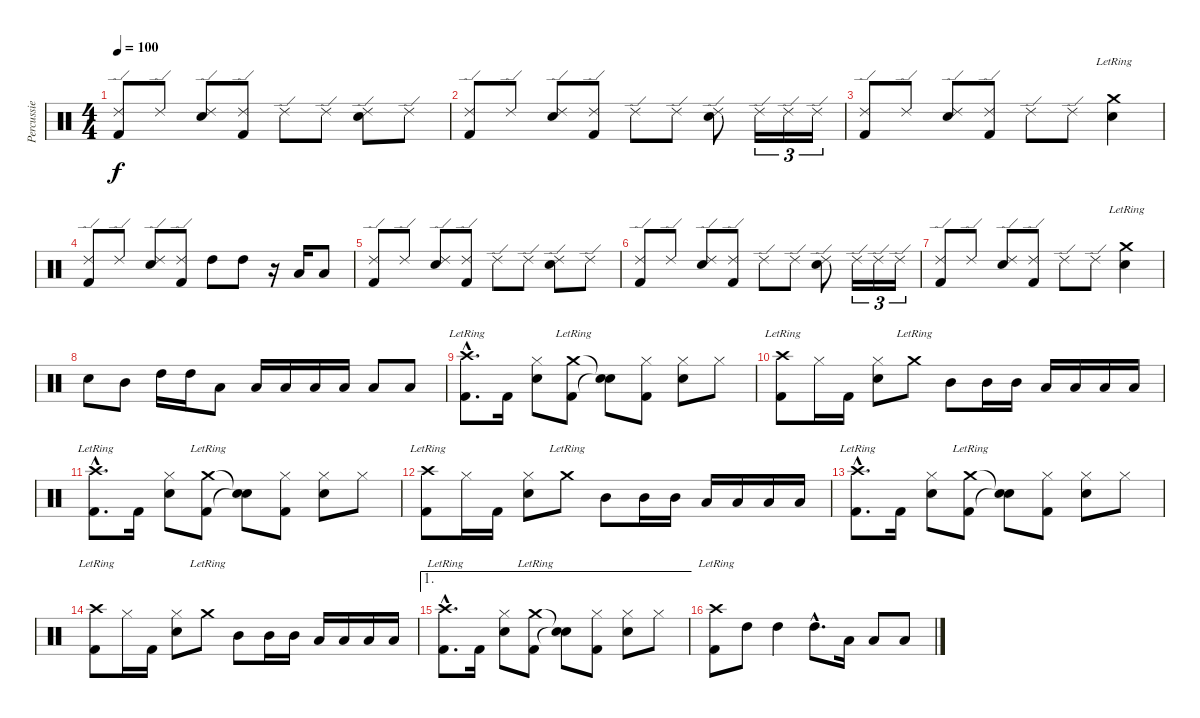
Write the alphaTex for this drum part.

\track ("Percussie" "Percussie") {instrument percussion}
\staff {score}
\articulation defaults
\ts (4 4)
\tempo 100
\clef neutral
\ks c
("Ride (edge) 2" "Kick (hit) 2").8{dy f} "Ride (edge) 2".8 ("Ride (edge) 2" "Snare (hit) 2").8 ("Ride (edge) 2" "Kick (hit) 2").8 "Ride (edge) 2".8 "Ride (edge) 2".8 ("Ride (edge) 2" "Snare (hit) 2").8 "Ride (edge) 2".8 |
("Ride (edge) 2" "Kick (hit) 2").8 "Ride (edge) 2".8 ("Ride (edge) 2" "Snare (hit) 2").8 ("Ride (edge) 2" "Kick (hit) 2").8 "Ride (edge) 2".8 "Ride (edge) 2".8 ("Ride (edge) 2" "Snare (hit) 2").8 "Ride (edge) 2".16{tu (3 2)} "Ride (edge) 2".16{tu (3 2)} "Ride (edge) 2".16{tu (3 2)} |
("Ride (edge) 2" "Kick (hit) 2").8 "Ride (edge) 2".8 ("Ride (edge) 2" "Snare (hit) 2").8 ("Ride (edge) 2" "Kick (hit) 2").8 "Ride (edge) 2".8 "Ride (edge) 2".8 ("Crash medium (hit)"{lr} "Snare (hit) 2").4 |
("Ride (edge) 2" "Kick (hit) 2").8 "Ride (edge) 2".8 ("Ride (edge) 2" "Snare (hit) 2").8 ("Ride (edge) 2" "Kick (hit) 2").8 "High Tom (hit)".8 "High Tom (hit)".8 r.16 "Low Tom (hit)".16 "Low Tom (hit)".8 |
("Ride (edge) 2" "Kick (hit) 2").8 "Ride (edge) 2".8 ("Ride (edge) 2" "Snare (hit) 2").8 ("Ride (edge) 2" "Kick (hit) 2").8 "Ride (edge) 2".8 "Ride (edge) 2".8 ("Ride (edge) 2" "Snare (hit) 2").8 "Ride (edge) 2".8 |
("Ride (edge) 2" "Kick (hit) 2").8 "Ride (edge) 2".8 ("Ride (edge) 2" "Snare (hit) 2").8 ("Ride (edge) 2" "Kick (hit) 2").8 "Ride (edge) 2".8 "Ride (edge) 2".8 ("Ride (edge) 2" "Snare (hit) 2").8 "Ride (edge) 2".16{tu (3 2)} "Ride (edge) 2".16{tu (3 2)} "Ride (edge) 2".16{tu (3 2)} |
("Ride (edge) 2" "Kick (hit) 2").8 "Ride (edge) 2".8 ("Ride (edge) 2" "Snare (hit) 2").8 ("Ride (edge) 2" "Kick (hit) 2").8 "Ride (edge) 2".8 "Ride (edge) 2".8 ("Crash medium (hit)"{lr} "Snare (hit) 2").4 |
"Snare (hit) 2".8 "Mid Tom (hit)".8 "High Tom (hit)".16 "High Tom (hit)".16 "Low Tom (hit)".8 "Low Tom (hit)".16 "Low Tom (hit)".16 "Low Tom (hit)".16 "Low Tom (hit)".16 "Low Tom (hit)".8 "Low Tom (hit)".8 |
("Crash high (hit)"{hac lr} "Kick (hit) 2"{hac}).8{d} "Kick (hit) 2".16 ("Hi-Hat (closed)" "Snare (hit) 2").8 ("Crash medium (hit)"{lr} "Kick (hit) 2").8 ("Snare (hit)"{t} "Snare (hit)"{t}).8 ("Hi-Hat (closed)" "Kick (hit) 2").8 ("Hi-Hat (closed)" "Snare (hit) 2").8 "Hi-Hat (closed)".8 |
("Crash high (hit)"{lr} "Kick (hit) 2").8 "Hi-Hat (closed)".16 "Kick (hit) 2".16 ("Hi-Hat (closed)" "Snare (hit) 2").8 "Crash medium (hit)"{lr}.8 "Mid Tom (hit)".8 "Mid Tom (hit)".16 "Mid Tom (hit)".16 "Low Tom (hit)".16 "Low Tom (hit)".16 "Low Tom (hit)".16 "Low Tom (hit)".16 |
("Crash high (hit)"{hac lr} "Kick (hit) 2"{hac}).8{d} "Kick (hit) 2".16 ("Hi-Hat (closed)" "Snare (hit) 2").8 ("Crash medium (hit)"{lr} "Kick (hit) 2").8 ("Snare (hit)"{t} "Snare (hit)"{t}).8 ("Hi-Hat (closed)" "Kick (hit) 2").8 ("Hi-Hat (closed)" "Snare (hit) 2").8 "Hi-Hat (closed)".8 |
("Crash high (hit)"{lr} "Kick (hit) 2").8 "Hi-Hat (closed)".16 "Kick (hit) 2".16 ("Hi-Hat (closed)" "Snare (hit) 2").8 "Crash medium (hit)"{lr}.8 "Mid Tom (hit)".8 "Mid Tom (hit)".16 "Mid Tom (hit)".16 "Low Tom (hit)".16 "Low Tom (hit)".16 "Low Tom (hit)".16 "Low Tom (hit)".16 |
("Crash high (hit)"{hac lr} "Kick (hit) 2"{hac}).8{d} "Kick (hit) 2".16 ("Hi-Hat (closed)" "Snare (hit) 2").8 ("Crash medium (hit)"{lr} "Kick (hit) 2").8 ("Snare (hit)"{t} "Snare (hit)"{t}).8 ("Hi-Hat (closed)" "Kick (hit) 2").8 ("Hi-Hat (closed)" "Snare (hit) 2").8 "Hi-Hat (closed)".8 |
("Crash high (hit)"{lr} "Kick (hit) 2").8 "Hi-Hat (closed)".16 "Kick (hit) 2".16 ("Hi-Hat (closed)" "Snare (hit) 2").8 "Crash medium (hit)"{lr}.8 "Mid Tom (hit)".8 "Mid Tom (hit)".16 "Mid Tom (hit)".16 "Low Tom (hit)".16 "Low Tom (hit)".16 "Low Tom (hit)".16 "Low Tom (hit)".16 |
\ae 1
("Crash high (hit)"{hac lr} "Kick (hit) 2"{hac}).8{d} "Kick (hit) 2".16 ("Hi-Hat (closed)" "Snare (hit) 2").8 ("Crash medium (hit)"{lr} "Kick (hit) 2").8 ("Snare (hit)"{t} "Snare (hit)"{t}).8 ("Hi-Hat (closed)" "Kick (hit) 2").8 ("Hi-Hat (closed)" "Snare (hit) 2").8 "Hi-Hat (closed)".8 |
("Crash high (hit)"{lr} "Kick (hit) 2").8 "High Tom (hit)".8 "High Tom (hit)".4 "High Tom (hit)"{hac}.8{d} "Low Tom (hit)".16 "Low Tom (hit)".8 "Low Tom (hit)".8
